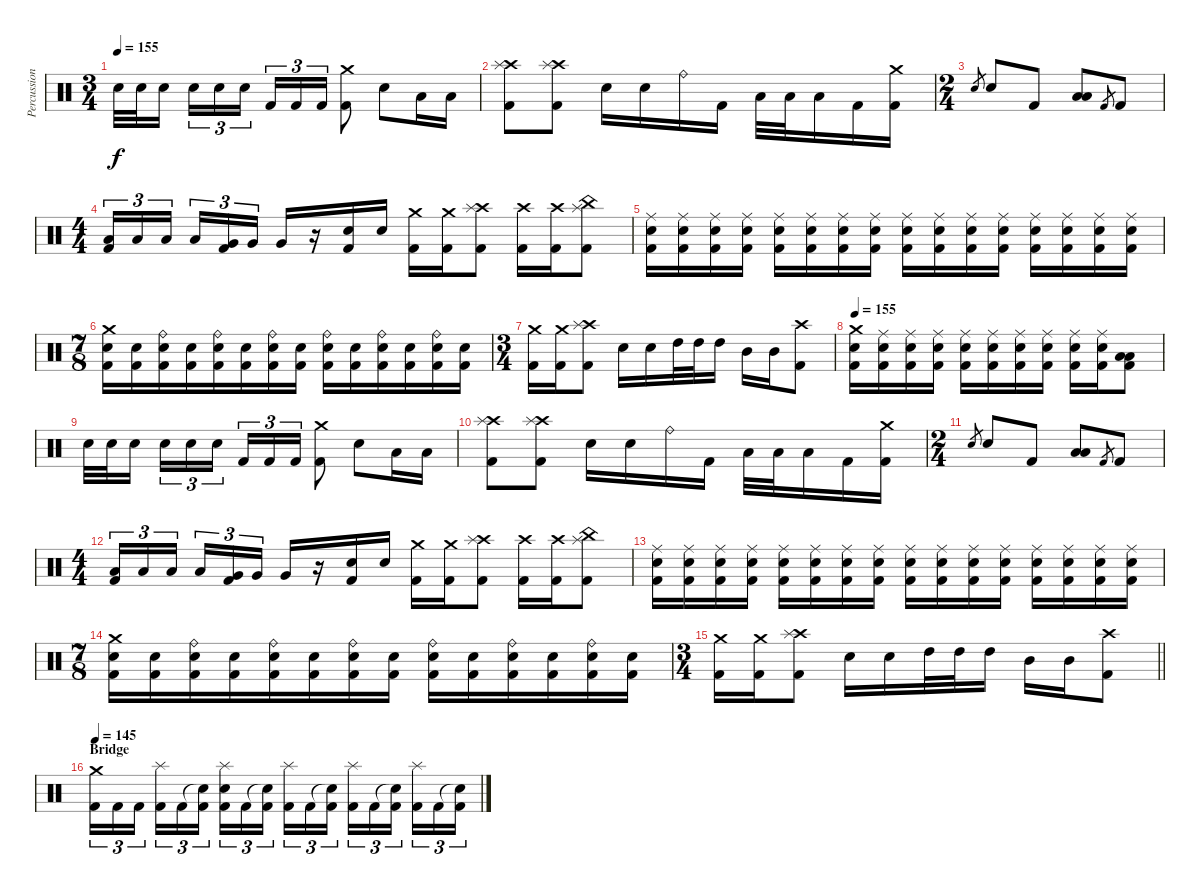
\track ("Percussion" "Percussion") {instrument percussion}
\staff {score}
\articulation defaults
\ts (3 4)
\tempo 155
\clef neutral
\ks c "Electric Snare (hit)".32{dy f} "Electric Snare (hit)".32 "Electric Snare (hit)".16 "Electric Snare (hit)".16{tu (3 2)} "Electric Snare (hit)".16{tu (3 2)} "Electric Snare (hit)".16{tu (3 2)} "Kick (hit) 2".16{tu (3 2)} "Kick (hit) 2".16{tu (3 2)} "Kick (hit) 2".16{tu (3 2)}
("Crash medium (hit)" "Kick (hit) 2").8 "Electric Snare (hit)".8 "Low Tom (hit)".16 "Low Tom (hit)".16 |
("Crash high (hit)" "Splash (hit)" "Kick (hit) 2").8 ("Crash high (hit)" "Splash (hit)" "Kick (hit) 2").8 "Electric Snare (hit)".16 "Electric Snare (hit)".16 "Ride (bell)".16 "Kick (hit) 2".16 "Low Tom (hit)".32 "Low Tom (hit)".32 "Low Tom (hit)".16 "Kick (hit) 2".16 ("Crash medium (hit)" "Kick (hit) 2").16 |
\ts (2 4)
"Electric Snare (hit)".8{gr} "Electric Snare (hit)".8 "Kick (hit) 2".8 ("Low Tom (hit)" "Low Floor Tom (hit)").8 "Kick (hit) 2".8{gr} "Kick (hit) 2".8 |
\ts (4 4)
("Low Tom (hit)" "Kick (hit) 2").16{tu (3 2)} "Low Tom (hit)".16{tu (3 2)} "Low Tom (hit)".16{tu (3 2)} "Low Tom (hit)".16{tu (3 2)} ("Very Low Tom (hit)" "Kick (hit) 2").16{tu (3 2)} "Very Low Tom (hit)".16{tu (3 2)} "Very Low Tom (hit)".16 r.16 ("Electric Snare (hit)" "Kick (hit) 2").16 "Electric Snare (hit)".16 ("Crash medium (hit)" "Kick (hit) 2").16 ("Crash medium (hit)" "Kick (hit) 2").16 ("Crash high (hit)" "Splash (hit)" "Kick (hit) 2").8 ("Crash high (hit)" "Kick (hit) 2").16 ("Crash high (hit)" "Kick (hit) 2").16 ("China (hit)" "Splash (hit)" "Kick (hit) 2").8 |
("Ride (middle)" "Electric Snare (hit)" "Kick (hit) 2").16 ("Ride (middle)" "Electric Snare (hit)" "Kick (hit) 2").16 ("Ride (middle)" "Electric Snare (hit)" "Kick (hit) 2").16 ("Ride (middle)" "Electric Snare (hit)" "Kick (hit) 2").16 ("Ride (middle)" "Electric Snare (hit)" "Kick (hit) 2").16 ("Ride (middle)" "Electric Snare (hit)" "Kick (hit) 2").16 ("Ride (middle)" "Electric Snare (hit)" "Kick (hit) 2").16 ("Ride (middle)" "Electric Snare (hit)" "Kick (hit) 2").16 ("Ride (middle)" "Electric Snare (hit)" "Kick (hit) 2").16 ("Ride (middle)" "Electric Snare (hit)" "Kick (hit) 2").16 ("Ride (middle)" "Electric Snare (hit)" "Kick (hit) 2").16 ("Ride (middle)" "Electric Snare (hit)" "Kick (hit) 2").16 ("Ride (middle)" "Electric Snare (hit)" "Kick (hit) 2").16 ("Ride (middle)" "Electric Snare (hit)" "Kick (hit) 2").16 ("Ride (middle)" "Electric Snare (hit)" "Kick (hit) 2").16 ("Ride (middle)" "Electric Snare (hit)" "Kick (hit) 2").16 |
\ts (7 8)
("Crash medium (hit)" "Electric Snare (hit)" "Kick (hit) 2").16 ("Electric Snare (hit)" "Kick (hit) 2").16 ("Ride (bell)" "Electric Snare (hit)" "Kick (hit) 2").16 ("Electric Snare (hit)" "Kick (hit) 2").16 ("Ride (bell)" "Electric Snare (hit)" "Kick (hit) 2").16 ("Electric Snare (hit)" "Kick (hit) 2").16 ("Ride (bell)" "Electric Snare (hit)" "Kick (hit) 2").16 ("Electric Snare (hit)" "Kick (hit) 2").16 ("Ride (bell)" "Electric Snare (hit)" "Kick (hit) 2").16 ("Electric Snare (hit)" "Kick (hit) 2").16 ("Ride (bell)" "Electric Snare (hit)" "Kick (hit) 2").16 ("Electric Snare (hit)" "Kick (hit) 2").16 ("Ride (bell)" "Electric Snare (hit)" "Kick (hit) 2").16 ("Electric Snare (hit)" "Kick (hit) 2").16 |
\ts (3 4)
("Crash medium (hit)" "Kick (hit) 2").16 ("Crash medium (hit)" "Kick (hit) 2").16 ("Crash high (hit)" "Splash (hit)" "Kick (hit) 2").8 "Electric Snare (hit)".16 "Electric Snare (hit)".16 "High Tom (hit)".32 "High Tom (hit)".32 "High Tom (hit)".16 "Mid Tom (hit)".16 "Mid Tom (hit)".16 ("Crash high (hit)" "Kick (hit) 2").8 |
\tempo 155
("Crash medium (hit)" "Electric Snare (hit)" "Kick (hit) 2").16 ("Ride (middle)" "Electric Snare (hit)" "Kick (hit) 2").16 ("Ride (middle)" "Electric Snare (hit)" "Kick (hit) 2").16 ("Ride (middle)" "Electric Snare (hit)" "Kick (hit) 2").16 ("Ride (middle)" "Electric Snare (hit)" "Kick (hit) 2").16 ("Ride (middle)" "Electric Snare (hit)" "Kick (hit) 2").16 ("Ride (middle)" "Electric Snare (hit)" "Kick (hit) 2").16 ("Ride (middle)" "Electric Snare (hit)" "Kick (hit) 2").16 ("Ride (middle)" "Electric Snare (hit)" "Kick (hit) 2").16 ("Ride (middle)" "Electric Snare (hit)" "Kick (hit) 2").16 ("Low Tom (hit)" "Low Floor Tom (hit)" "Kick (hit) 2").8 |
"Electric Snare (hit)".32 "Electric Snare (hit)".32 "Electric Snare (hit)".16 "Electric Snare (hit)".16{tu (3 2)} "Electric Snare (hit)".16{tu (3 2)} "Electric Snare (hit)".16{tu (3 2)} "Kick (hit) 2".16{tu (3 2)} "Kick (hit) 2".16{tu (3 2)} "Kick (hit) 2".16{tu (3 2)} ("Crash medium (hit)" "Kick (hit) 2").8 "Electric Snare (hit)".8 "Low Tom (hit)".16 "Low Tom (hit)".16 |
("Crash high (hit)" "Splash (hit)" "Kick (hit) 2").8 ("Crash high (hit)" "Splash (hit)" "Kick (hit) 2").8 "Electric Snare (hit)".16 "Electric Snare (hit)".16 "Ride (bell)".16 "Kick (hit) 2".16 "Low Tom (hit)".32 "Low Tom (hit)".32 "Low Tom (hit)".16 "Kick (hit) 2".16 ("Crash medium (hit)" "Kick (hit) 2").16 |
\ts (2 4)
"Electric Snare (hit)".8{gr} "Electric Snare (hit)".8 "Kick (hit) 2".8 ("Low Tom (hit)" "Low Floor Tom (hit)").8 "Kick (hit) 2".8{gr} "Kick (hit) 2".8 |
\ts (4 4)
("Low Tom (hit)" "Kick (hit) 2").16{tu (3 2)} "Low Tom (hit)".16{tu (3 2)} "Low Tom (hit)".16{tu (3 2)} "Low Tom (hit)".16{tu (3 2)} ("Very Low Tom (hit)" "Kick (hit) 2").16{tu (3 2)} "Very Low Tom (hit)".16{tu (3 2)} "Very Low Tom (hit)".16 r.16 ("Electric Snare (hit)" "Kick (hit) 2").16 "Electric Snare (hit)".16 ("Crash medium (hit)" "Kick (hit) 2").16 ("Crash medium (hit)" "Kick (hit) 2").16 ("Crash high (hit)" "Splash (hit)" "Kick (hit) 2").8 ("Crash high (hit)" "Kick (hit) 2").16 ("Crash high (hit)" "Kick (hit) 2").16 ("China (hit)" "Splash (hit)" "Kick (hit) 2").8 |
("Ride (middle)" "Electric Snare (hit)" "Kick (hit) 2").16 ("Ride (middle)" "Electric Snare (hit)" "Kick (hit) 2").16 ("Ride (middle)" "Electric Snare (hit)" "Kick (hit) 2").16 ("Ride (middle)" "Electric Snare (hit)" "Kick (hit) 2").16 ("Ride (middle)" "Electric Snare (hit)" "Kick (hit) 2").16 ("Ride (middle)" "Electric Snare (hit)" "Kick (hit) 2").16 ("Ride (middle)" "Electric Snare (hit)" "Kick (hit) 2").16 ("Ride (middle)" "Electric Snare (hit)" "Kick (hit) 2").16 ("Ride (middle)" "Electric Snare (hit)" "Kick (hit) 2").16 ("Ride (middle)" "Electric Snare (hit)" "Kick (hit) 2").16 ("Ride (middle)" "Electric Snare (hit)" "Kick (hit) 2").16 ("Ride (middle)" "Electric Snare (hit)" "Kick (hit) 2").16 ("Ride (middle)" "Electric Snare (hit)" "Kick (hit) 2").16 ("Ride (middle)" "Electric Snare (hit)" "Kick (hit) 2").16 ("Ride (middle)" "Electric Snare (hit)" "Kick (hit) 2").16 ("Ride (middle)" "Electric Snare (hit)" "Kick (hit) 2").16 |
\ts (7 8)
("Crash medium (hit)" "Electric Snare (hit)" "Kick (hit) 2").16 ("Electric Snare (hit)" "Kick (hit) 2").16 ("Ride (bell)" "Electric Snare (hit)" "Kick (hit) 2").16 ("Electric Snare (hit)" "Kick (hit) 2").16 ("Ride (bell)" "Electric Snare (hit)" "Kick (hit) 2").16 ("Electric Snare (hit)" "Kick (hit) 2").16 ("Ride (bell)" "Electric Snare (hit)" "Kick (hit) 2").16 ("Electric Snare (hit)" "Kick (hit) 2").16 ("Ride (bell)" "Electric Snare (hit)" "Kick (hit) 2").16 ("Electric Snare (hit)" "Kick (hit) 2").16 ("Ride (bell)" "Electric Snare (hit)" "Kick (hit) 2").16 ("Electric Snare (hit)" "Kick (hit) 2").16 ("Ride (bell)" "Electric Snare (hit)" "Kick (hit) 2").16 ("Electric Snare (hit)" "Kick (hit) 2").16 |
\ts (3 4)
\barLineRight lightlight
("Crash medium (hit)" "Kick (hit) 2").16 ("Crash medium (hit)" "Kick (hit) 2").16 ("Crash high (hit)" "Splash (hit)" "Kick (hit) 2").8 "Electric Snare (hit)".16 "Electric Snare (hit)".16 "High Tom (hit)".32 "High Tom (hit)".32 "High Tom (hit)".16 "Mid Tom (hit)".16 "Mid Tom (hit)".16 ("Crash high (hit)" "Kick (hit) 2").8 |
\section ("" "Bridge")
\tempo 145
("Crash medium (hit)" "Kick (hit) 2").16{tu (3 2)} "Kick (hit) 2".16{tu (3 2)} "Kick (hit) 2".16{tu (3 2)} ("Splash (hit)" "Kick (hit) 2").16{tu (3 2)} "Kick (hit) 2".16{tu (3 2)} ("Snare (hit)"{t} "Kick (hit) 2").16{tu (3 2)} ("Splash (hit)" "Electric Snare (hit)" "Kick (hit) 2").16{tu (3 2)} "Kick (hit) 2".16{tu (3 2)} ("Snare (hit)"{t} "Kick (hit) 2").16{tu (3 2)} ("Splash (hit)" "Kick (hit) 2").16{tu (3 2)} "Kick (hit) 2".16{tu (3 2)} ("Snare (hit)"{t} "Kick (hit) 2").16{tu (3 2)} ("Splash (hit)" "Kick (hit) 2").16{tu (3 2)} "Kick (hit) 2".16{tu (3 2)} ("Snare (hit)"{t} "Kick (hit) 2").16{tu (3 2)} ("Splash (hit)" "Kick (hit) 2").16{tu (3 2)} "Kick (hit) 2".16{tu (3 2)} ("Snare (hit)"{t} "Kick (hit) 2").16{tu (3 2)}
